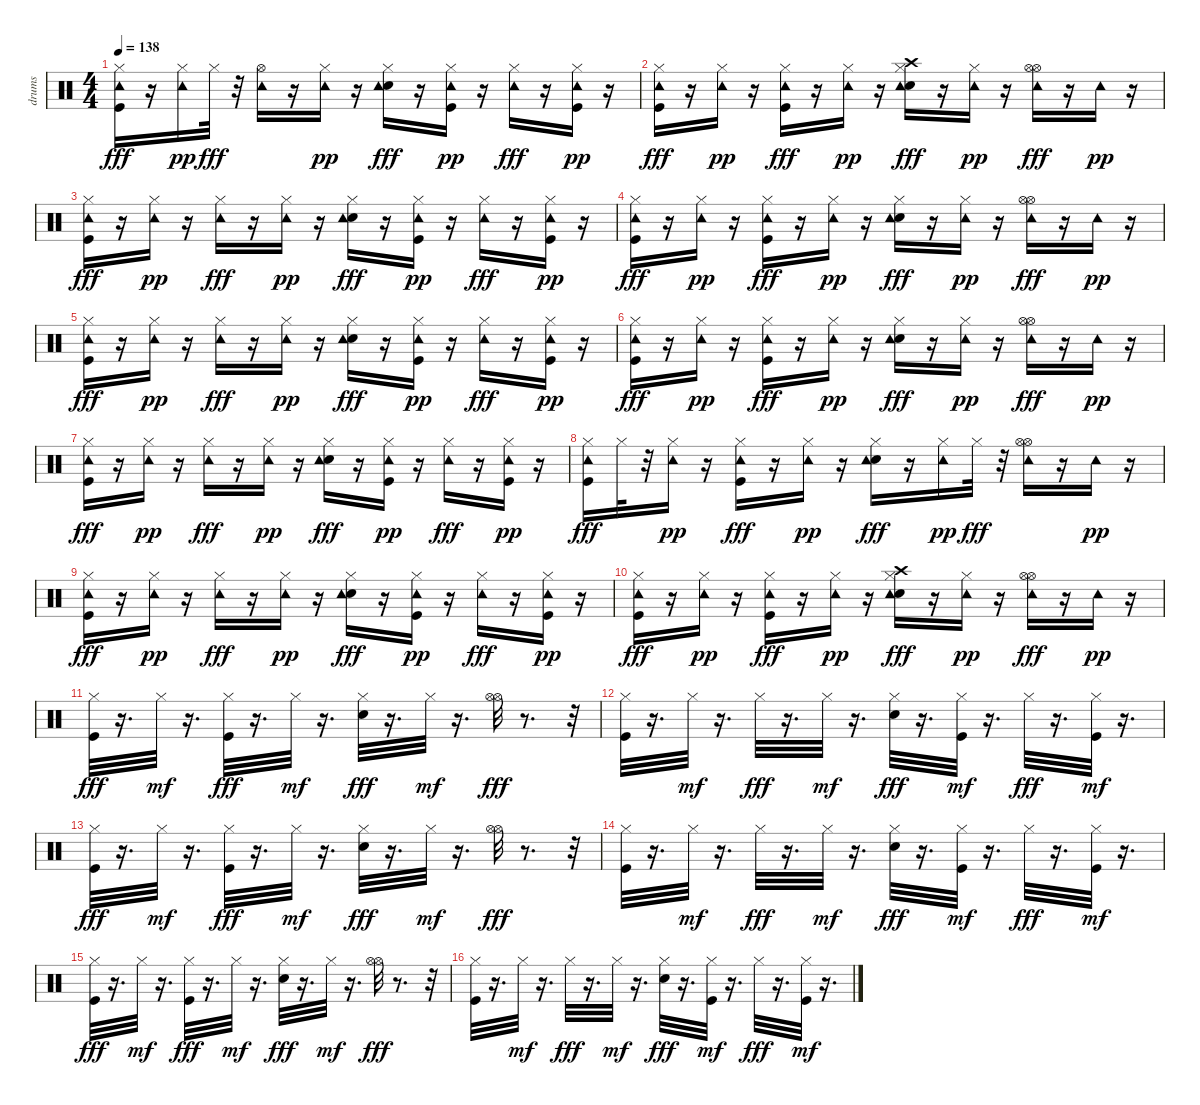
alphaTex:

\track ("drums" "drums") {instrument percussion}
\staff {score}
\articulation defaults
\ts (4 4)
\tempo 138
\clef neutral
\ks c
("Kick (hit)" "Hi-Hat (closed)" "Tambourine (hit)").16{dy fff} r.16 ("Hi-Hat (closed)" "Tambourine (hit)").16{dy pp} "Hi-Hat (closed)".32{dy fff} r.32 ("Hi-Hat (open)" "Tambourine (hit)").16 r.16 ("Hi-Hat (closed)" "Tambourine (hit)").16{dy pp} r.16 ("Metronome (bell)" "Hi-Hat (closed)" "Tambourine (hit)").16{dy fff} r.16 ("Kick (hit)" "Hi-Hat (closed)" "Tambourine (hit)").16{dy pp} r.16 ("Hi-Hat (closed)" "Tambourine (hit)").16{dy fff} r.16 ("Kick (hit)" "Hi-Hat (closed)" "Tambourine (hit)").16{dy pp} r.16 |
("Kick (hit)" "Hi-Hat (closed)" "Tambourine (hit)").16{dy fff} r.16 ("Hi-Hat (closed)" "Tambourine (hit)").16{dy pp} r.16 ("Kick (hit)" "Hi-Hat (closed)" "Tambourine (hit)").16{dy fff} r.16 ("Hi-Hat (closed)" "Tambourine (hit)").16{dy pp} r.16 ("Metronome (bell)" "Hi-Hat (closed)" "Crash high (hit)" "Tambourine (hit)").16{dy fff} r.16 ("Hi-Hat (closed)" "Tambourine (hit)").16{dy pp} r.16 ("Hi-Hat (open)" "Hi-Hat (open)" "Tambourine (hit)").16{dy fff} r.16 "Tambourine (hit)".16{dy pp} r.16 |
("Kick (hit)" "Hi-Hat (closed)" "Tambourine (hit)").16{dy fff} r.16 ("Hi-Hat (closed)" "Tambourine (hit)").16{dy pp} r.16 ("Hi-Hat (closed)" "Tambourine (hit)").16{dy fff} r.16 ("Hi-Hat (closed)" "Tambourine (hit)").16{dy pp} r.16 ("Metronome (bell)" "Hi-Hat (closed)" "Tambourine (hit)").16{dy fff} r.16 ("Kick (hit)" "Hi-Hat (closed)" "Tambourine (hit)").16{dy pp} r.16 ("Hi-Hat (closed)" "Tambourine (hit)").16{dy fff} r.16 ("Kick (hit)" "Hi-Hat (closed)" "Tambourine (hit)").16{dy pp} r.16 |
("Kick (hit)" "Hi-Hat (closed)" "Tambourine (hit)").16{dy fff} r.16 ("Hi-Hat (closed)" "Tambourine (hit)").16{dy pp} r.16 ("Kick (hit)" "Hi-Hat (closed)" "Tambourine (hit)").16{dy fff} r.16 ("Hi-Hat (closed)" "Tambourine (hit)").16{dy pp} r.16 ("Metronome (bell)" "Hi-Hat (closed)" "Tambourine (hit)").16{dy fff} r.16 ("Hi-Hat (closed)" "Tambourine (hit)").16{dy pp} r.16 ("Hi-Hat (open)" "Hi-Hat (open)" "Tambourine (hit)").16{dy fff} r.16 "Tambourine (hit)".16{dy pp} r.16 |
("Kick (hit)" "Hi-Hat (closed)" "Tambourine (hit)").16{dy fff} r.16 ("Hi-Hat (closed)" "Tambourine (hit)").16{dy pp} r.16 ("Hi-Hat (closed)" "Tambourine (hit)").16{dy fff} r.16 ("Hi-Hat (closed)" "Tambourine (hit)").16{dy pp} r.16 ("Metronome (bell)" "Hi-Hat (closed)" "Tambourine (hit)").16{dy fff} r.16 ("Kick (hit)" "Hi-Hat (closed)" "Tambourine (hit)").16{dy pp} r.16 ("Hi-Hat (closed)" "Tambourine (hit)").16{dy fff} r.16 ("Kick (hit)" "Hi-Hat (closed)" "Tambourine (hit)").16{dy pp} r.16 |
("Kick (hit)" "Hi-Hat (closed)" "Tambourine (hit)").16{dy fff} r.16 ("Hi-Hat (closed)" "Tambourine (hit)").16{dy pp} r.16 ("Kick (hit)" "Hi-Hat (closed)" "Tambourine (hit)").16{dy fff} r.16 ("Hi-Hat (closed)" "Tambourine (hit)").16{dy pp} r.16 ("Metronome (bell)" "Hi-Hat (closed)" "Tambourine (hit)").16{dy fff} r.16 ("Hi-Hat (closed)" "Tambourine (hit)").16{dy pp} r.16 ("Hi-Hat (open)" "Hi-Hat (open)" "Tambourine (hit)").16{dy fff} r.16 "Tambourine (hit)".16{dy pp} r.16 |
("Kick (hit)" "Hi-Hat (closed)" "Tambourine (hit)").16{dy fff} r.16 ("Hi-Hat (closed)" "Tambourine (hit)").16{dy pp} r.16 ("Hi-Hat (closed)" "Tambourine (hit)").16{dy fff} r.16 ("Hi-Hat (closed)" "Tambourine (hit)").16{dy pp} r.16 ("Metronome (bell)" "Hi-Hat (closed)" "Tambourine (hit)").16{dy fff} r.16 ("Kick (hit)" "Hi-Hat (closed)" "Tambourine (hit)").16{dy pp} r.16 ("Hi-Hat (closed)" "Tambourine (hit)").16{dy fff} r.16 ("Kick (hit)" "Hi-Hat (closed)" "Tambourine (hit)").16{dy pp} r.16 |
("Kick (hit)" "Hi-Hat (closed)" "Tambourine (hit)").16{dy fff} "Hi-Hat (closed)".32 r.32 ("Hi-Hat (closed)" "Tambourine (hit)").16{dy pp} r.16 ("Kick (hit)" "Hi-Hat (closed)" "Tambourine (hit)").16{dy fff} r.16 ("Hi-Hat (closed)" "Tambourine (hit)").16{dy pp} r.16 ("Metronome (bell)" "Hi-Hat (closed)" "Tambourine (hit)").16{dy fff} r.16 ("Hi-Hat (closed)" "Tambourine (hit)").16{dy pp} "Hi-Hat (closed)".32{dy fff} r.32 ("Hi-Hat (open)" "Hi-Hat (open)" "Tambourine (hit)").16 r.16 "Tambourine (hit)".16{dy pp} r.16 |
("Kick (hit)" "Hi-Hat (closed)" "Tambourine (hit)").16{dy fff} r.16 ("Hi-Hat (closed)" "Tambourine (hit)").16{dy pp} r.16 ("Hi-Hat (closed)" "Tambourine (hit)").16{dy fff} r.16 ("Hi-Hat (closed)" "Tambourine (hit)").16{dy pp} r.16 ("Metronome (bell)" "Hi-Hat (closed)" "Tambourine (hit)").16{dy fff} r.16 ("Kick (hit)" "Hi-Hat (closed)" "Tambourine (hit)").16{dy pp} r.16 ("Hi-Hat (closed)" "Tambourine (hit)").16{dy fff} r.16 ("Kick (hit)" "Hi-Hat (closed)" "Tambourine (hit)").16{dy pp} r.16 |
("Kick (hit)" "Hi-Hat (closed)" "Tambourine (hit)").16{dy fff} r.16 ("Hi-Hat (closed)" "Tambourine (hit)").16{dy pp} r.16 ("Kick (hit)" "Hi-Hat (closed)" "Tambourine (hit)").16{dy fff} r.16 ("Hi-Hat (closed)" "Tambourine (hit)").16{dy pp} r.16 ("Metronome (bell)" "Hi-Hat (closed)" "Crash high (hit)" "Tambourine (hit)").16{dy fff} r.16 ("Hi-Hat (closed)" "Tambourine (hit)").16{dy pp} r.16 ("Hi-Hat (open)" "Hi-Hat (open)" "Tambourine (hit)").16{dy fff} r.16 "Tambourine (hit)".16{dy pp} r.16 |
("Kick (hit)" "Hi-Hat (closed)").32{dy fff} r.16{d} "Hi-Hat (closed)".32{dy mf} r.16{d} ("Kick (hit)" "Hi-Hat (closed)").32{dy fff} r.16{d} "Hi-Hat (closed)".32{dy mf} r.16{d} ("Metronome (bell)" "Hi-Hat (closed)").32{dy fff} r.16{d} "Hi-Hat (closed)".32{dy mf} r.16{d} ("Hi-Hat (open)" "Hi-Hat (open)").32{dy fff} r.8{d} r.32 |
("Kick (hit)" "Hi-Hat (closed)").32 r.16{d} "Hi-Hat (closed)".32{dy mf} r.16{d} "Hi-Hat (closed)".32{dy fff} r.16{d} "Hi-Hat (closed)".32{dy mf} r.16{d} ("Metronome (bell)" "Hi-Hat (closed)").32{dy fff} r.16{d} ("Kick (hit)" "Hi-Hat (closed)").32{dy mf} r.16{d} "Hi-Hat (closed)".32{dy fff} r.16{d} ("Kick (hit)" "Hi-Hat (closed)").32{dy mf} r.16{d} |
("Kick (hit)" "Hi-Hat (closed)").32{dy fff} r.16{d} "Hi-Hat (closed)".32{dy mf} r.16{d} ("Kick (hit)" "Hi-Hat (closed)").32{dy fff} r.16{d} "Hi-Hat (closed)".32{dy mf} r.16{d} ("Metronome (bell)" "Hi-Hat (closed)").32{dy fff} r.16{d} "Hi-Hat (closed)".32{dy mf} r.16{d} ("Hi-Hat (open)" "Hi-Hat (open)").32{dy fff} r.8{d} r.32 |
("Kick (hit)" "Hi-Hat (closed)").32 r.16{d} "Hi-Hat (closed)".32{dy mf} r.16{d} "Hi-Hat (closed)".32{dy fff} r.16{d} "Hi-Hat (closed)".32{dy mf} r.16{d} ("Metronome (bell)" "Hi-Hat (closed)").32{dy fff} r.16{d} ("Kick (hit)" "Hi-Hat (closed)").32{dy mf} r.16{d} "Hi-Hat (closed)".32{dy fff} r.16{d} ("Kick (hit)" "Hi-Hat (closed)").32{dy mf} r.16{d} |
("Kick (hit)" "Hi-Hat (closed)").32{dy fff} r.16{d} "Hi-Hat (closed)".32{dy mf} r.16{d} ("Kick (hit)" "Hi-Hat (closed)").32{dy fff} r.16{d} "Hi-Hat (closed)".32{dy mf} r.16{d} ("Metronome (bell)" "Hi-Hat (closed)").32{dy fff} r.16{d} "Hi-Hat (closed)".32{dy mf} r.16{d} ("Hi-Hat (open)" "Hi-Hat (open)").32{dy fff} r.8{d} r.32 |
("Kick (hit)" "Hi-Hat (closed)").32 r.16{d} "Hi-Hat (closed)".32{dy mf} r.16{d} "Hi-Hat (closed)".32{dy fff} r.16{d} "Hi-Hat (closed)".32{dy mf} r.16{d} ("Metronome (bell)" "Hi-Hat (closed)").32{dy fff} r.16{d} ("Kick (hit)" "Hi-Hat (closed)").32{dy mf} r.16{d} "Hi-Hat (closed)".32{dy fff} r.16{d} ("Kick (hit)" "Hi-Hat (closed)").32{dy mf} r.16{d}
